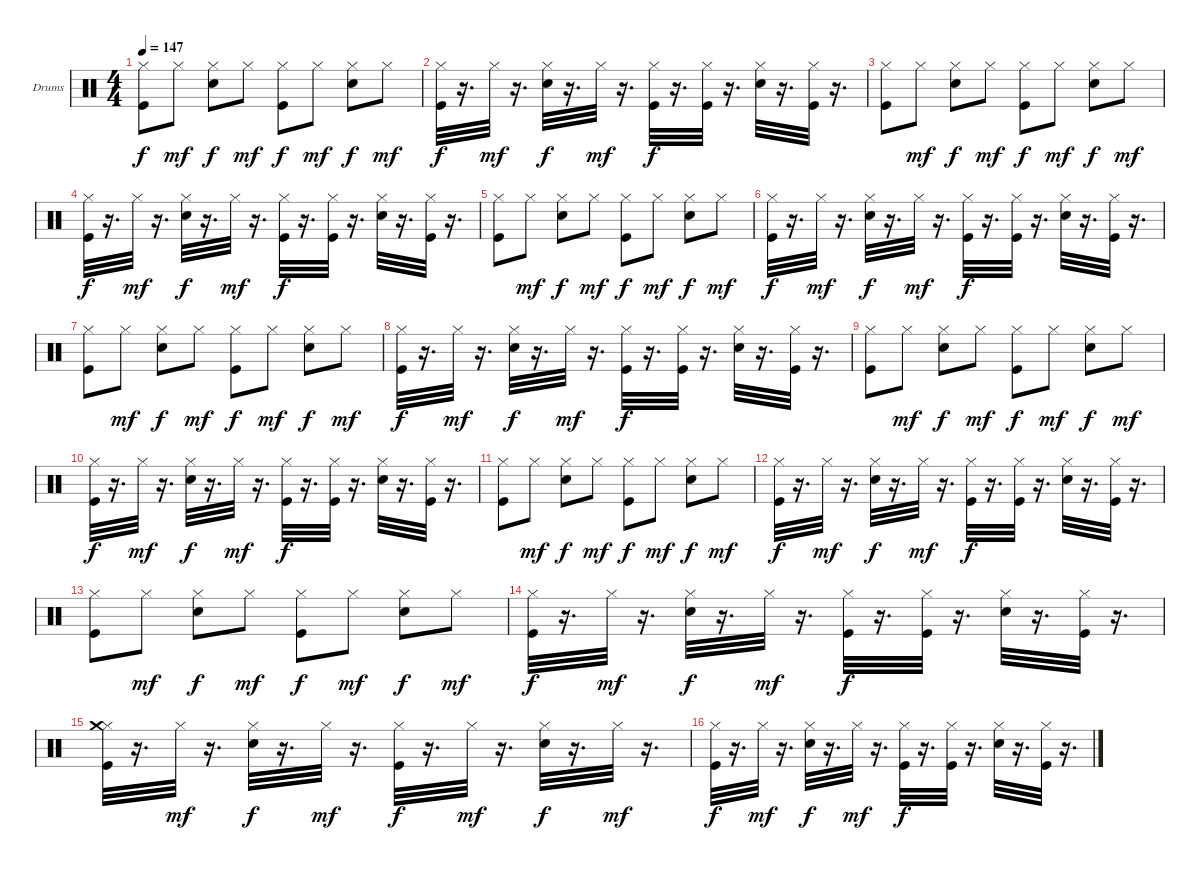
\bracketExtendMode groupsimilarinstruments
\firstSystemTrackNameOrientation horizontal
\otherSystemsTrackNameOrientation horizontal
\track ("Drumkit" "Drums") {instrument percussion}
\staff {score}
\articulation defaults
\ts (4 4)
\tempo 147
\clef neutral
\ks c
("Hi-Hat (closed)" "Kick (hit)").8{dy f} "Hi-Hat (closed)".8{dy mf} ("Hi-Hat (closed)" "Snare (hit) 2").8{dy f} "Hi-Hat (closed)".8{dy mf} ("Hi-Hat (closed)" "Kick (hit)").8{dy f} "Hi-Hat (closed)".8{dy mf} ("Hi-Hat (closed)" "Snare (hit) 2").8{dy f} "Hi-Hat (closed)".8{dy mf} |
("Kick (hit)" "Hi-Hat (closed)").32{dy f} r.16{d} "Hi-Hat (closed)".32{dy mf} r.16{d} ("Snare (hit) 2" "Hi-Hat (closed)").32{dy f} r.16{d} "Hi-Hat (closed)".32{dy mf} r.16{d} ("Kick (hit)" "Hi-Hat (closed)").32{dy f} r.16{d} ("Kick (hit)" "Hi-Hat (closed)").32 r.16{d} ("Snare (hit) 2" "Hi-Hat (closed)").32 r.16{d} ("Kick (hit)" "Hi-Hat (closed)").32 r.16{d} |
("Hi-Hat (closed)" "Kick (hit)").8 "Hi-Hat (closed)".8{dy mf} ("Hi-Hat (closed)" "Snare (hit) 2").8{dy f} "Hi-Hat (closed)".8{dy mf} ("Hi-Hat (closed)" "Kick (hit)").8{dy f} "Hi-Hat (closed)".8{dy mf} ("Hi-Hat (closed)" "Snare (hit) 2").8{dy f} "Hi-Hat (closed)".8{dy mf} |
("Kick (hit)" "Hi-Hat (closed)").32{dy f} r.16{d} "Hi-Hat (closed)".32{dy mf} r.16{d} ("Snare (hit) 2" "Hi-Hat (closed)").32{dy f} r.16{d} "Hi-Hat (closed)".32{dy mf} r.16{d} ("Kick (hit)" "Hi-Hat (closed)").32{dy f} r.16{d} ("Kick (hit)" "Hi-Hat (closed)").32 r.16{d} ("Snare (hit) 2" "Hi-Hat (closed)").32 r.16{d} ("Kick (hit)" "Hi-Hat (closed)").32 r.16{d} |
("Hi-Hat (closed)" "Kick (hit)").8 "Hi-Hat (closed)".8{dy mf} ("Hi-Hat (closed)" "Snare (hit) 2").8{dy f} "Hi-Hat (closed)".8{dy mf} ("Hi-Hat (closed)" "Kick (hit)").8{dy f} "Hi-Hat (closed)".8{dy mf} ("Hi-Hat (closed)" "Snare (hit) 2").8{dy f} "Hi-Hat (closed)".8{dy mf} |
("Kick (hit)" "Hi-Hat (closed)").32{dy f} r.16{d} "Hi-Hat (closed)".32{dy mf} r.16{d} ("Snare (hit) 2" "Hi-Hat (closed)").32{dy f} r.16{d} "Hi-Hat (closed)".32{dy mf} r.16{d} ("Kick (hit)" "Hi-Hat (closed)").32{dy f} r.16{d} ("Kick (hit)" "Hi-Hat (closed)").32 r.16{d} ("Snare (hit) 2" "Hi-Hat (closed)").32 r.16{d} ("Kick (hit)" "Hi-Hat (closed)").32 r.16{d} |
("Hi-Hat (closed)" "Kick (hit)").8 "Hi-Hat (closed)".8{dy mf} ("Hi-Hat (closed)" "Snare (hit) 2").8{dy f} "Hi-Hat (closed)".8{dy mf} ("Hi-Hat (closed)" "Kick (hit)").8{dy f} "Hi-Hat (closed)".8{dy mf} ("Hi-Hat (closed)" "Snare (hit) 2").8{dy f} "Hi-Hat (closed)".8{dy mf} |
("Kick (hit)" "Hi-Hat (closed)").32{dy f} r.16{d} "Hi-Hat (closed)".32{dy mf} r.16{d} ("Snare (hit) 2" "Hi-Hat (closed)").32{dy f} r.16{d} "Hi-Hat (closed)".32{dy mf} r.16{d} ("Kick (hit)" "Hi-Hat (closed)").32{dy f} r.16{d} ("Kick (hit)" "Hi-Hat (closed)").32 r.16{d} ("Snare (hit) 2" "Hi-Hat (closed)").32 r.16{d} ("Kick (hit)" "Hi-Hat (closed)").32 r.16{d} |
("Hi-Hat (closed)" "Kick (hit)").8 "Hi-Hat (closed)".8{dy mf} ("Hi-Hat (closed)" "Snare (hit) 2").8{dy f} "Hi-Hat (closed)".8{dy mf} ("Hi-Hat (closed)" "Kick (hit)").8{dy f} "Hi-Hat (closed)".8{dy mf} ("Hi-Hat (closed)" "Snare (hit) 2").8{dy f} "Hi-Hat (closed)".8{dy mf} |
("Kick (hit)" "Hi-Hat (closed)").32{dy f} r.16{d} "Hi-Hat (closed)".32{dy mf} r.16{d} ("Snare (hit) 2" "Hi-Hat (closed)").32{dy f} r.16{d} "Hi-Hat (closed)".32{dy mf} r.16{d} ("Kick (hit)" "Hi-Hat (closed)").32{dy f} r.16{d} ("Kick (hit)" "Hi-Hat (closed)").32 r.16{d} ("Snare (hit) 2" "Hi-Hat (closed)").32 r.16{d} ("Kick (hit)" "Hi-Hat (closed)").32 r.16{d} |
("Hi-Hat (closed)" "Kick (hit)").8 "Hi-Hat (closed)".8{dy mf} ("Hi-Hat (closed)" "Snare (hit) 2").8{dy f} "Hi-Hat (closed)".8{dy mf} ("Hi-Hat (closed)" "Kick (hit)").8{dy f} "Hi-Hat (closed)".8{dy mf} ("Hi-Hat (closed)" "Snare (hit) 2").8{dy f} "Hi-Hat (closed)".8{dy mf} |
("Kick (hit)" "Hi-Hat (closed)").32{dy f} r.16{d} "Hi-Hat (closed)".32{dy mf} r.16{d} ("Snare (hit) 2" "Hi-Hat (closed)").32{dy f} r.16{d} "Hi-Hat (closed)".32{dy mf} r.16{d} ("Kick (hit)" "Hi-Hat (closed)").32{dy f} r.16{d} ("Kick (hit)" "Hi-Hat (closed)").32 r.16{d} ("Snare (hit) 2" "Hi-Hat (closed)").32 r.16{d} ("Kick (hit)" "Hi-Hat (closed)").32 r.16{d} |
("Hi-Hat (closed)" "Kick (hit)").8 "Hi-Hat (closed)".8{dy mf} ("Hi-Hat (closed)" "Snare (hit) 2").8{dy f} "Hi-Hat (closed)".8{dy mf} ("Hi-Hat (closed)" "Kick (hit)").8{dy f} "Hi-Hat (closed)".8{dy mf} ("Hi-Hat (closed)" "Snare (hit) 2").8{dy f} "Hi-Hat (closed)".8{dy mf} |
("Kick (hit)" "Hi-Hat (closed)").32{dy f} r.16{d} "Hi-Hat (closed)".32{dy mf} r.16{d} ("Snare (hit) 2" "Hi-Hat (closed)").32{dy f} r.16{d} "Hi-Hat (closed)".32{dy mf} r.16{d} ("Hi-Hat (closed)" "Kick (hit)").32{dy f} r.16{d} ("Kick (hit)" "Hi-Hat (closed)").32 r.16{d} ("Snare (hit) 2" "Hi-Hat (closed)").32 r.16{d} ("Kick (hit)" "Hi-Hat (closed)").32 r.16{d} |
("Kick (hit)" "Hi-Hat (closed)" "Crash medium (hit)").32 r.16{d} "Hi-Hat (closed)".32{dy mf} r.16{d} ("Snare (hit) 2" "Hi-Hat (closed)").32{dy f} r.16{d} "Hi-Hat (closed)".32{dy mf} r.16{d} ("Kick (hit)" "Hi-Hat (closed)").32{dy f} r.16{d} "Hi-Hat (closed)".32{dy mf} r.16{d} ("Snare (hit) 2" "Hi-Hat (closed)").32{dy f} r.16{d} "Hi-Hat (closed)".32{dy mf} r.16{d} |
("Kick (hit)" "Hi-Hat (closed)").32{dy f} r.16{d} "Hi-Hat (closed)".32{dy mf} r.16{d} ("Snare (hit) 2" "Hi-Hat (closed)").32{dy f} r.16{d} "Hi-Hat (closed)".32{dy mf} r.16{d} ("Kick (hit)" "Hi-Hat (closed)").32{dy f} r.16{d} ("Kick (hit)" "Hi-Hat (closed)").32 r.16{d} ("Snare (hit) 2" "Hi-Hat (closed)").32 r.16{d} ("Kick (hit)" "Hi-Hat (closed)").32 r.16{d}
